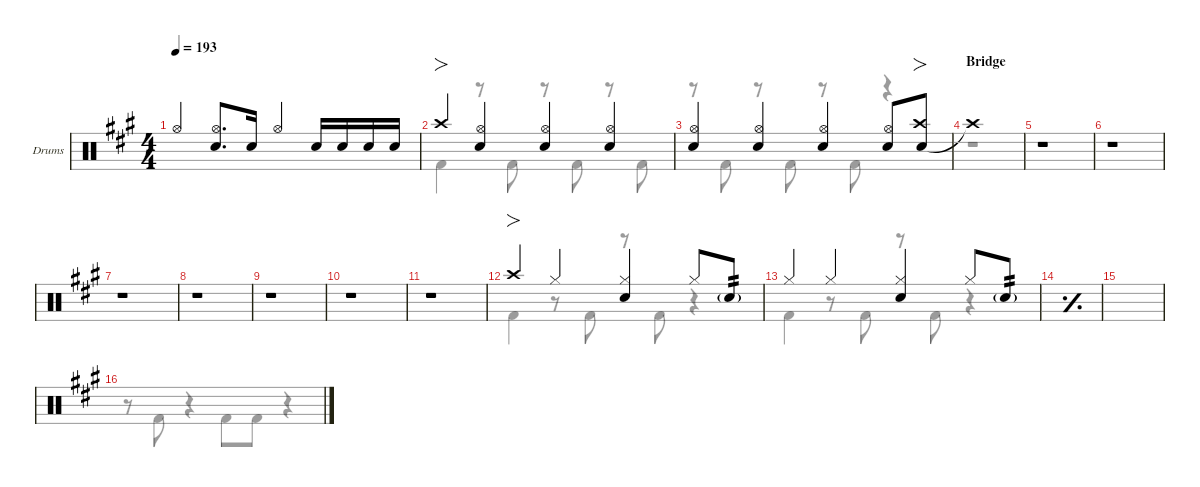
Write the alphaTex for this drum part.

\defaultSystemsLayout 4
\hideDynamics
\bracketExtendMode nobrackets
\firstSystemTrackNameOrientation horizontal
\track ("Drums" "Drums") {defaultSystemsLayout 4 instrument percussion}
\staff {score}
\articulation defaults
\voice
\ts (4 4)
\tempo 193
\clef neutral
\scale
0.244132
\ks a "Hi-Hat (open)"{acc forcenatural}.4{dy f beam Up}
("Hi-Hat (open)"{acc forcenatural} "Snare (hit) 2"{acc forcenatural}).8{d beam Up} "Snare (hit) 2"{acc forcenatural}.16{beam Up} "Hi-Hat (open)"{acc forcenatural}.4{beam Up} "Snare (hit) 2"{acc forcenatural}.16{beam Up} "Snare (hit) 2"{acc forcenatural}.16{dy mf beam Up} "Snare (hit) 2"{acc forcenatural}.16{dy f beam Up} "Snare (hit) 2"{acc forcenatural}.16{dy mf beam Up} |
\scale
0.244132 "Crash high (hit)"{acc forcenatural}.4{fo dy f beam Up} ("Hi-Hat (open)"{acc forcenatural} "Snare (hit) 2"{acc forcenatural}).4{beam Up} ("Hi-Hat (open)"{acc forcenatural} "Snare (hit) 2"{acc forcenatural}).4{beam Up} ("Hi-Hat (open)"{acc forcenatural} "Snare (hit) 2"{acc forcenatural}).4{beam Up} |
\scale
0.244132 ("Hi-Hat (open)"{acc forcenatural} "Snare (hit) 2"{acc forcenatural}).4{beam Up} ("Hi-Hat (open)"{acc forcenatural} "Snare (hit) 2"{acc forcenatural}).4{beam Up} ("Hi-Hat (open)"{acc forcenatural} "Snare (hit) 2"{acc forcenatural}).4{beam Up} ("Snare (hit) 2"{acc forcenatural} "Hi-Hat (open)"{acc forcenatural}).8{beam Up} ("Snare (hit) 2"{acc forcenatural} "Crash high (hit)"{acc forcenatural}).8{fo beam Up} |
\section ("" "Bridge")
\scale
0.267605 "Crash high (hit)"{t acc forcenatural}.1{beam Up} |
\scale
0.244132 r.1{beam Up} |
\scale
0.244132 r.1{beam Up} |
\scale
0.244132 r.1{beam Up} |
\scale
0.267605 r.1{beam Up} |
\scale
0.244132 r.1{beam Up} |
\scale
0.244132 r.1{beam Up} |
\scale
0.244132 r.1{beam Up} |
\scale
0.267605 "Crash high (hit)"{acc forcenatural}.4{fo beam Up} "Hi-Hat (closed)"{acc forcenatural}.4{beam Up} ("Hi-Hat (closed)"{acc forcenatural} "Snare (hit) 2"{acc forcenatural}).4{beam Up} "Hi-Hat (closed)"{acc forcenatural}.8{beam Up} "Snare (hit) 2"{g acc forcenatural}.8{tp 2 dy mp beam Up} |
\scale
0.244132 "Hi-Hat (closed)"{acc forcenatural}.4{dy f beam Up} "Hi-Hat (closed)"{acc forcenatural}.4{beam Up} ("Hi-Hat (closed)"{acc forcenatural} "Snare (hit) 2"{acc forcenatural}).4{beam Up} "Hi-Hat (closed)"{acc forcenatural}.8{beam Up} "Snare (hit) 2"{g acc forcenatural}.8{tp 2 dy mp beam Up} |
\simile simple
\scale
0.244132 |
\scale
0.244132 |
\scale
0.267605
\voice
\clef neutral
\ottava regular
\simile none
\scale
0.244132
\ks a
r.8{dy f beam Down} "Kick (hit) 2"{acc forcenatural}.8{beam Down} r.4{beam Down} "Kick (hit) 2"{acc forcenatural}.8{beam Down} "Kick (hit) 2"{acc forcenatural}.8{beam Down} r.4{beam Down} |
\scale
0.244132 "Kick (hit) 2"{acc forcenatural}.4{beam Down} r.8{beam Down} "Kick (hit) 2"{acc forcenatural}.8{beam Down} r.8{beam Down} "Kick (hit) 2"{acc forcenatural}.8{beam Down} r.8{beam Down} "Kick (hit) 2"{acc forcenatural}.8{beam Down} |
\scale
0.244132 r.8{beam Down} "Kick (hit) 2"{acc forcenatural}.8{beam Down} r.8{beam Down} "Kick (hit) 2"{acc forcenatural}.8{beam Down} r.8{beam Down} "Kick (hit) 2"{acc forcenatural}.8{beam Down} r.4{beam Down} |
\scale
0.267605 r.1{beam Down} |
\scale
0.244132 r.1{beam Down} |
\scale
0.244132 r.1{beam Down} |
\scale
0.244132 r.1{beam Down} |
\scale
0.267605 r.1{beam Down} |
\scale
0.244132 r.1{beam Down} |
\scale
0.244132 r.1{beam Down} |
\scale
0.244132 r.1{beam Down} |
\scale
0.267605 "Kick (hit) 2"{acc forcenatural}.4{beam Down} r.8{beam Down} "Kick (hit) 2"{acc forcenatural}.8{beam Down} r.8{beam Down} "Kick (hit) 2"{acc forcenatural}.8{beam Down} r.4{beam Down} |
\scale
0.244132 "Kick (hit) 2"{acc forcenatural}.4{beam Down} r.8{beam Down} "Kick (hit) 2"{acc forcenatural}.8{beam Down} r.8{beam Down} "Kick (hit) 2"{acc forcenatural}.8{beam Down} r.4{beam Down} |
\simile simple
\scale
0.244132 |
\scale
0.244132 |
\scale
0.267605
